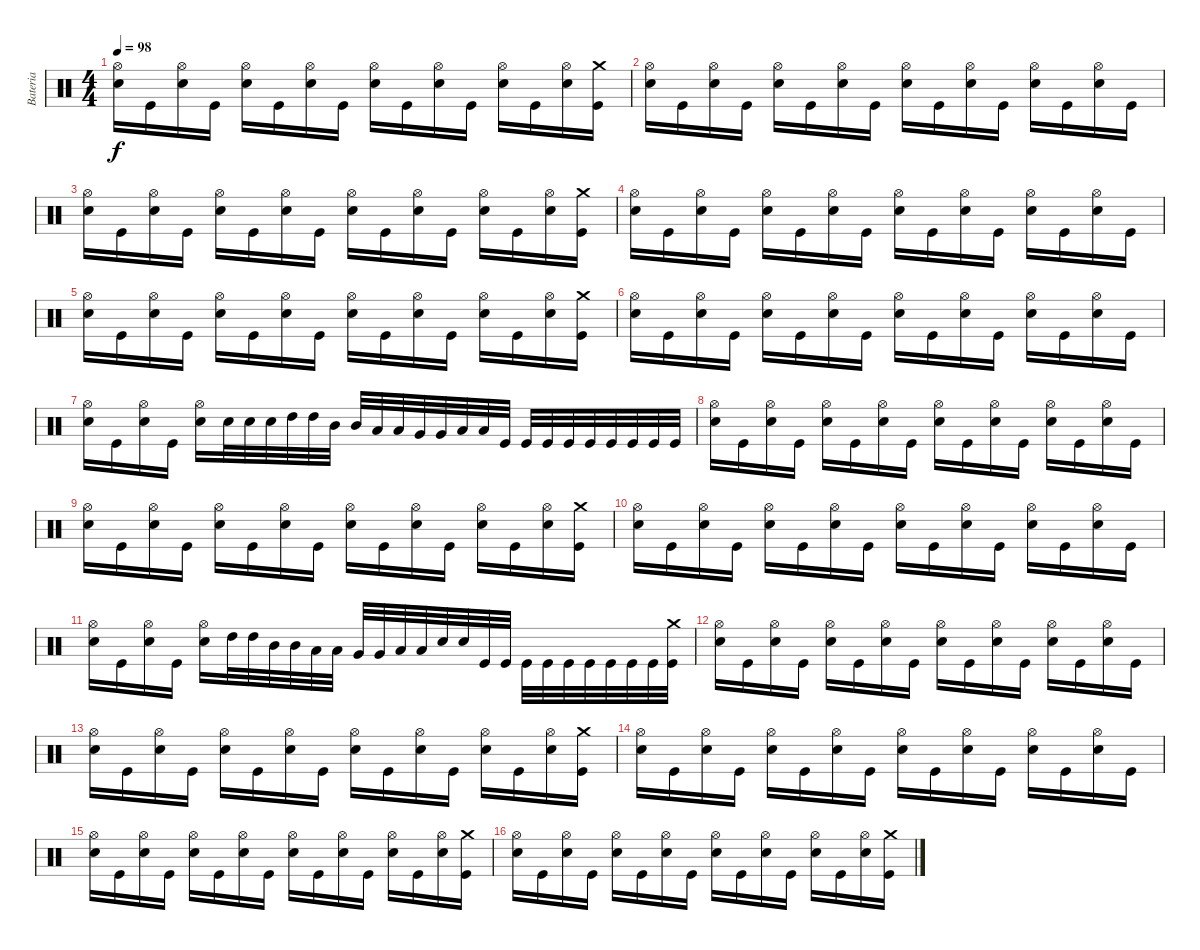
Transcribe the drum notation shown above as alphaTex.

\track ("Bateria" "Bateria") {instrument percussion}
\staff {score}
\articulation defaults
\ts (4 4)
\tempo 98
\clef neutral
\ks c
("Electric Snare (hit)" "Hi-Hat (open)").16{dy f} "Kick (hit)".16 ("Electric Snare (hit)" "Hi-Hat (open)").16 "Kick (hit)".16 ("Electric Snare (hit)" "Hi-Hat (open)").16 "Kick (hit)".16 ("Electric Snare (hit)" "Hi-Hat (open)").16 "Kick (hit)".16 ("Electric Snare (hit)" "Hi-Hat (open)").16 "Kick (hit)".16 ("Electric Snare (hit)" "Hi-Hat (open)").16 "Kick (hit)".16 ("Electric Snare (hit)" "Hi-Hat (open)").16 "Kick (hit)".16 ("Electric Snare (hit)" "Hi-Hat (open)").16 ("Crash medium (hit)" "Kick (hit)").16 |
("Electric Snare (hit)" "Hi-Hat (open)").16 "Kick (hit)".16 ("Electric Snare (hit)" "Hi-Hat (open)").16 "Kick (hit)".16 ("Electric Snare (hit)" "Hi-Hat (open)").16 "Kick (hit)".16 ("Electric Snare (hit)" "Hi-Hat (open)").16 "Kick (hit)".16 ("Electric Snare (hit)" "Hi-Hat (open)").16 "Kick (hit)".16 ("Electric Snare (hit)" "Hi-Hat (open)").16 "Kick (hit)".16 ("Electric Snare (hit)" "Hi-Hat (open)").16 "Kick (hit)".16 ("Electric Snare (hit)" "Hi-Hat (open)").16 "Kick (hit)".16 |
("Electric Snare (hit)" "Hi-Hat (open)").16 "Kick (hit)".16 ("Electric Snare (hit)" "Hi-Hat (open)").16 "Kick (hit)".16 ("Electric Snare (hit)" "Hi-Hat (open)").16 "Kick (hit)".16 ("Electric Snare (hit)" "Hi-Hat (open)").16 "Kick (hit)".16 ("Electric Snare (hit)" "Hi-Hat (open)").16 "Kick (hit)".16 ("Electric Snare (hit)" "Hi-Hat (open)").16 "Kick (hit)".16 ("Electric Snare (hit)" "Hi-Hat (open)").16 "Kick (hit)".16 ("Electric Snare (hit)" "Hi-Hat (open)").16 ("Crash medium (hit)" "Kick (hit)").16 |
("Electric Snare (hit)" "Hi-Hat (open)").16 "Kick (hit)".16 ("Electric Snare (hit)" "Hi-Hat (open)").16 "Kick (hit)".16 ("Electric Snare (hit)" "Hi-Hat (open)").16 "Kick (hit)".16 ("Electric Snare (hit)" "Hi-Hat (open)").16 "Kick (hit)".16 ("Electric Snare (hit)" "Hi-Hat (open)").16 "Kick (hit)".16 ("Electric Snare (hit)" "Hi-Hat (open)").16 "Kick (hit)".16 ("Electric Snare (hit)" "Hi-Hat (open)").16 "Kick (hit)".16 ("Electric Snare (hit)" "Hi-Hat (open)").16 "Kick (hit)".16 |
("Electric Snare (hit)" "Hi-Hat (open)").16 "Kick (hit)".16 ("Electric Snare (hit)" "Hi-Hat (open)").16 "Kick (hit)".16 ("Electric Snare (hit)" "Hi-Hat (open)").16 "Kick (hit)".16 ("Electric Snare (hit)" "Hi-Hat (open)").16 "Kick (hit)".16 ("Electric Snare (hit)" "Hi-Hat (open)").16 "Kick (hit)".16 ("Electric Snare (hit)" "Hi-Hat (open)").16 "Kick (hit)".16 ("Electric Snare (hit)" "Hi-Hat (open)").16 "Kick (hit)".16 ("Electric Snare (hit)" "Hi-Hat (open)").16 ("Crash medium (hit)" "Kick (hit)").16 |
("Electric Snare (hit)" "Hi-Hat (open)").16 "Kick (hit)".16 ("Electric Snare (hit)" "Hi-Hat (open)").16 "Kick (hit)".16 ("Electric Snare (hit)" "Hi-Hat (open)").16 "Kick (hit)".16 ("Electric Snare (hit)" "Hi-Hat (open)").16 "Kick (hit)".16 ("Electric Snare (hit)" "Hi-Hat (open)").16 "Kick (hit)".16 ("Electric Snare (hit)" "Hi-Hat (open)").16 "Kick (hit)".16 ("Electric Snare (hit)" "Hi-Hat (open)").16 "Kick (hit)".16 ("Electric Snare (hit)" "Hi-Hat (open)").16 "Kick (hit)".16 |
("Electric Snare (hit)" "Hi-Hat (open)").16 "Kick (hit)".16 ("Electric Snare (hit)" "Hi-Hat (open)").16 "Kick (hit)".16 ("Electric Snare (hit)" "Hi-Hat (open)").16 "Electric Snare (hit)".32 "Electric Snare (hit)".32 "Electric Snare (hit)".32 "High Tom (hit)".32 "High Tom (hit)".32 "Mid Tom (hit)".32 "Mid Tom (hit)".32 "Low Tom (hit)".32 "Low Tom (hit)".32 "Very Low Tom (hit)".32 "Very Low Tom (hit)".32 "Low Floor Tom (hit)".32 "Low Floor Tom (hit)".32 "Kick (hit)".32 "Kick (hit)".32 "Kick (hit)".32 "Kick (hit)".32 "Kick (hit)".32 "Kick (hit)".32 "Kick (hit)".32 "Kick (hit)".32 "Kick (hit)".32 |
("Electric Snare (hit)" "Hi-Hat (open)").16 "Kick (hit)".16 ("Electric Snare (hit)" "Hi-Hat (open)").16 "Kick (hit)".16 ("Electric Snare (hit)" "Hi-Hat (open)").16 "Kick (hit)".16 ("Electric Snare (hit)" "Hi-Hat (open)").16 "Kick (hit)".16 ("Electric Snare (hit)" "Hi-Hat (open)").16 "Kick (hit)".16 ("Electric Snare (hit)" "Hi-Hat (open)").16 "Kick (hit)".16 ("Electric Snare (hit)" "Hi-Hat (open)").16 "Kick (hit)".16 ("Electric Snare (hit)" "Hi-Hat (open)").16 "Kick (hit)".16 |
("Electric Snare (hit)" "Hi-Hat (open)").16 "Kick (hit)".16 ("Electric Snare (hit)" "Hi-Hat (open)").16 "Kick (hit)".16 ("Electric Snare (hit)" "Hi-Hat (open)").16 "Kick (hit)".16 ("Electric Snare (hit)" "Hi-Hat (open)").16 "Kick (hit)".16 ("Electric Snare (hit)" "Hi-Hat (open)").16 "Kick (hit)".16 ("Electric Snare (hit)" "Hi-Hat (open)").16 "Kick (hit)".16 ("Electric Snare (hit)" "Hi-Hat (open)").16 "Kick (hit)".16 ("Electric Snare (hit)" "Hi-Hat (open)").16 ("Crash medium (hit)" "Kick (hit)").16 |
("Electric Snare (hit)" "Hi-Hat (open)").16 "Kick (hit)".16 ("Electric Snare (hit)" "Hi-Hat (open)").16 "Kick (hit)".16 ("Electric Snare (hit)" "Hi-Hat (open)").16 "Kick (hit)".16 ("Electric Snare (hit)" "Hi-Hat (open)").16 "Kick (hit)".16 ("Electric Snare (hit)" "Hi-Hat (open)").16 "Kick (hit)".16 ("Electric Snare (hit)" "Hi-Hat (open)").16 "Kick (hit)".16 ("Electric Snare (hit)" "Hi-Hat (open)").16 "Kick (hit)".16 ("Electric Snare (hit)" "Hi-Hat (open)").16 "Kick (hit)".16 |
("Electric Snare (hit)" "Hi-Hat (open)").16 "Kick (hit)".16 ("Electric Snare (hit)" "Hi-Hat (open)").16 "Kick (hit)".16 ("Electric Snare (hit)" "Hi-Hat (open)").16 "High Tom (hit)".32 "High Tom (hit)".32 "Mid Tom (hit)".32 "Mid Tom (hit)".32 "Low Tom (hit)".32 "Low Tom (hit)".32 "Very Low Tom (hit)".32 "Very Low Tom (hit)".32 "Low Floor Tom (hit)".32 "Low Floor Tom (hit)".32 "Electric Snare (hit)".32 "Electric Snare (hit)".32 "Kick (hit)".32 "Kick (hit)".32 "Kick (hit)".32 "Kick (hit)".32 "Kick (hit)".32 "Kick (hit)".32 "Kick (hit)".32 "Kick (hit)".32 "Kick (hit)".32 ("Crash medium (hit)" "Kick (hit)").32 |
("Electric Snare (hit)" "Hi-Hat (open)").16 "Kick (hit)".16 ("Electric Snare (hit)" "Hi-Hat (open)").16 "Kick (hit)".16 ("Electric Snare (hit)" "Hi-Hat (open)").16 "Kick (hit)".16 ("Electric Snare (hit)" "Hi-Hat (open)").16 "Kick (hit)".16 ("Electric Snare (hit)" "Hi-Hat (open)").16 "Kick (hit)".16 ("Electric Snare (hit)" "Hi-Hat (open)").16 "Kick (hit)".16 ("Electric Snare (hit)" "Hi-Hat (open)").16 "Kick (hit)".16 ("Electric Snare (hit)" "Hi-Hat (open)").16 "Kick (hit)".16 |
("Electric Snare (hit)" "Hi-Hat (open)").16 "Kick (hit)".16 ("Electric Snare (hit)" "Hi-Hat (open)").16 "Kick (hit)".16 ("Electric Snare (hit)" "Hi-Hat (open)").16 "Kick (hit)".16 ("Electric Snare (hit)" "Hi-Hat (open)").16 "Kick (hit)".16 ("Electric Snare (hit)" "Hi-Hat (open)").16 "Kick (hit)".16 ("Electric Snare (hit)" "Hi-Hat (open)").16 "Kick (hit)".16 ("Electric Snare (hit)" "Hi-Hat (open)").16 "Kick (hit)".16 ("Electric Snare (hit)" "Hi-Hat (open)").16 ("Crash medium (hit)" "Kick (hit)").16 |
("Electric Snare (hit)" "Hi-Hat (open)").16 "Kick (hit)".16 ("Electric Snare (hit)" "Hi-Hat (open)").16 "Kick (hit)".16 ("Electric Snare (hit)" "Hi-Hat (open)").16 "Kick (hit)".16 ("Electric Snare (hit)" "Hi-Hat (open)").16 "Kick (hit)".16 ("Electric Snare (hit)" "Hi-Hat (open)").16 "Kick (hit)".16 ("Electric Snare (hit)" "Hi-Hat (open)").16 "Kick (hit)".16 ("Electric Snare (hit)" "Hi-Hat (open)").16 "Kick (hit)".16 ("Electric Snare (hit)" "Hi-Hat (open)").16 "Kick (hit)".16 |
("Electric Snare (hit)" "Hi-Hat (open)").16 "Kick (hit)".16 ("Electric Snare (hit)" "Hi-Hat (open)").16 "Kick (hit)".16 ("Electric Snare (hit)" "Hi-Hat (open)").16 "Kick (hit)".16 ("Electric Snare (hit)" "Hi-Hat (open)").16 "Kick (hit)".16 ("Electric Snare (hit)" "Hi-Hat (open)").16 "Kick (hit)".16 ("Electric Snare (hit)" "Hi-Hat (open)").16 "Kick (hit)".16 ("Electric Snare (hit)" "Hi-Hat (open)").16 "Kick (hit)".16 ("Electric Snare (hit)" "Hi-Hat (open)").16 ("Crash medium (hit)" "Kick (hit)").16 |
("Electric Snare (hit)" "Hi-Hat (open)").16 "Kick (hit)".16 ("Electric Snare (hit)" "Hi-Hat (open)").16 "Kick (hit)".16 ("Electric Snare (hit)" "Hi-Hat (open)").16 "Kick (hit)".16 ("Electric Snare (hit)" "Hi-Hat (open)").16 "Kick (hit)".16 ("Electric Snare (hit)" "Hi-Hat (open)").16 "Kick (hit)".16 ("Electric Snare (hit)" "Hi-Hat (open)").16 "Kick (hit)".16 ("Electric Snare (hit)" "Hi-Hat (open)").16 "Kick (hit)".16 ("Electric Snare (hit)" "Hi-Hat (open)").16 ("Crash medium (hit)" "Kick (hit)").16
